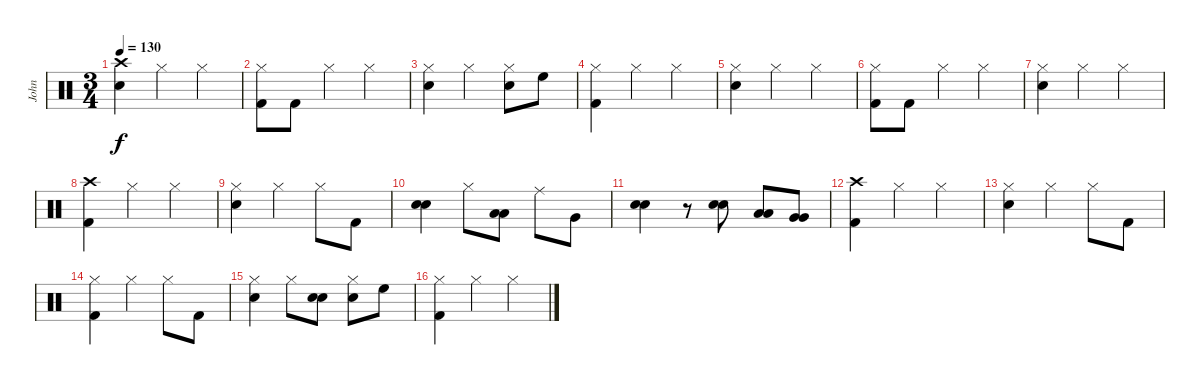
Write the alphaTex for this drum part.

\track ("John" "John") {instrument percussion}
\staff {score}
\articulation defaults
\ts (3 4)
\tempo 130
\clef neutral
\ks c
("Crash high (hit)" "Snare (hit) 2").4{dy f} "Hi-Hat (closed)".4 "Hi-Hat (closed)".4 |
("Hi-Hat (closed)" "Kick (hit) 2").8 "Kick (hit) 2".8 "Hi-Hat (closed)".4 "Hi-Hat (closed)".4 |
("Hi-Hat (closed)" "Snare (hit) 2").4 "Hi-Hat (closed)".4 ("Hi-Hat (closed)" "Snare (hit) 2").8 "High Floor Tom (hit)".8 |
("Hi-Hat (closed)" "Kick (hit) 2").4 "Hi-Hat (closed)".4 "Hi-Hat (closed)".4 |
("Hi-Hat (closed)" "Snare (hit) 2").4 "Hi-Hat (closed)".4 "Hi-Hat (closed)".4 |
("Hi-Hat (closed)" "Kick (hit) 2").8 "Kick (hit) 2".8 "Hi-Hat (closed)".4 "Hi-Hat (closed)".4 |
("Hi-Hat (closed)" "Snare (hit) 2").4 "Hi-Hat (closed)".4 "Hi-Hat (closed)".4 |
("Crash high (hit)" "Kick (hit) 2").4 "Hi-Hat (closed)".4 "Hi-Hat (closed)".4 |
("Hi-Hat (closed)" "Snare (hit) 2").4 "Hi-Hat (closed)".4 "Hi-Hat (closed)".8 "Kick (hit) 2".8 |
("Snare (hit) 2" "Snare (hit) 2").4 "Hi-Hat (closed)".8 ("Low Tom (hit)" "Low Tom (hit)").8 "Ride (middle)".8 "Very Low Tom (hit)".8 |
("Snare (hit) 2" "Snare (hit) 2").4 r.8 ("Snare (hit) 2" "Snare (hit) 2").8 ("Low Tom (hit)" "Low Tom (hit)").8 ("Very Low Tom (hit)" "Very Low Tom (hit)").8 |
("Crash high (hit)" "Kick (hit) 2").4 "Hi-Hat (closed)".4 "Hi-Hat (closed)".4 |
("Hi-Hat (closed)" "Snare (hit) 2").4 "Hi-Hat (closed)".4 "Hi-Hat (closed)".8 "Kick (hit) 2".8 |
("Hi-Hat (closed)" "Kick (hit) 2").4 "Hi-Hat (closed)".4 "Hi-Hat (closed)".8 "Kick (hit) 2".8 |
("Hi-Hat (closed)" "Snare (hit) 2").4 "Hi-Hat (closed)".8 ("Snare (hit) 2" "Snare (hit) 2").8 ("Hi-Hat (closed)" "Snare (hit) 2").8 "High Floor Tom (hit)".8 |
("Hi-Hat (closed)" "Kick (hit) 2").4 "Hi-Hat (closed)".4 "Hi-Hat (closed)".4
